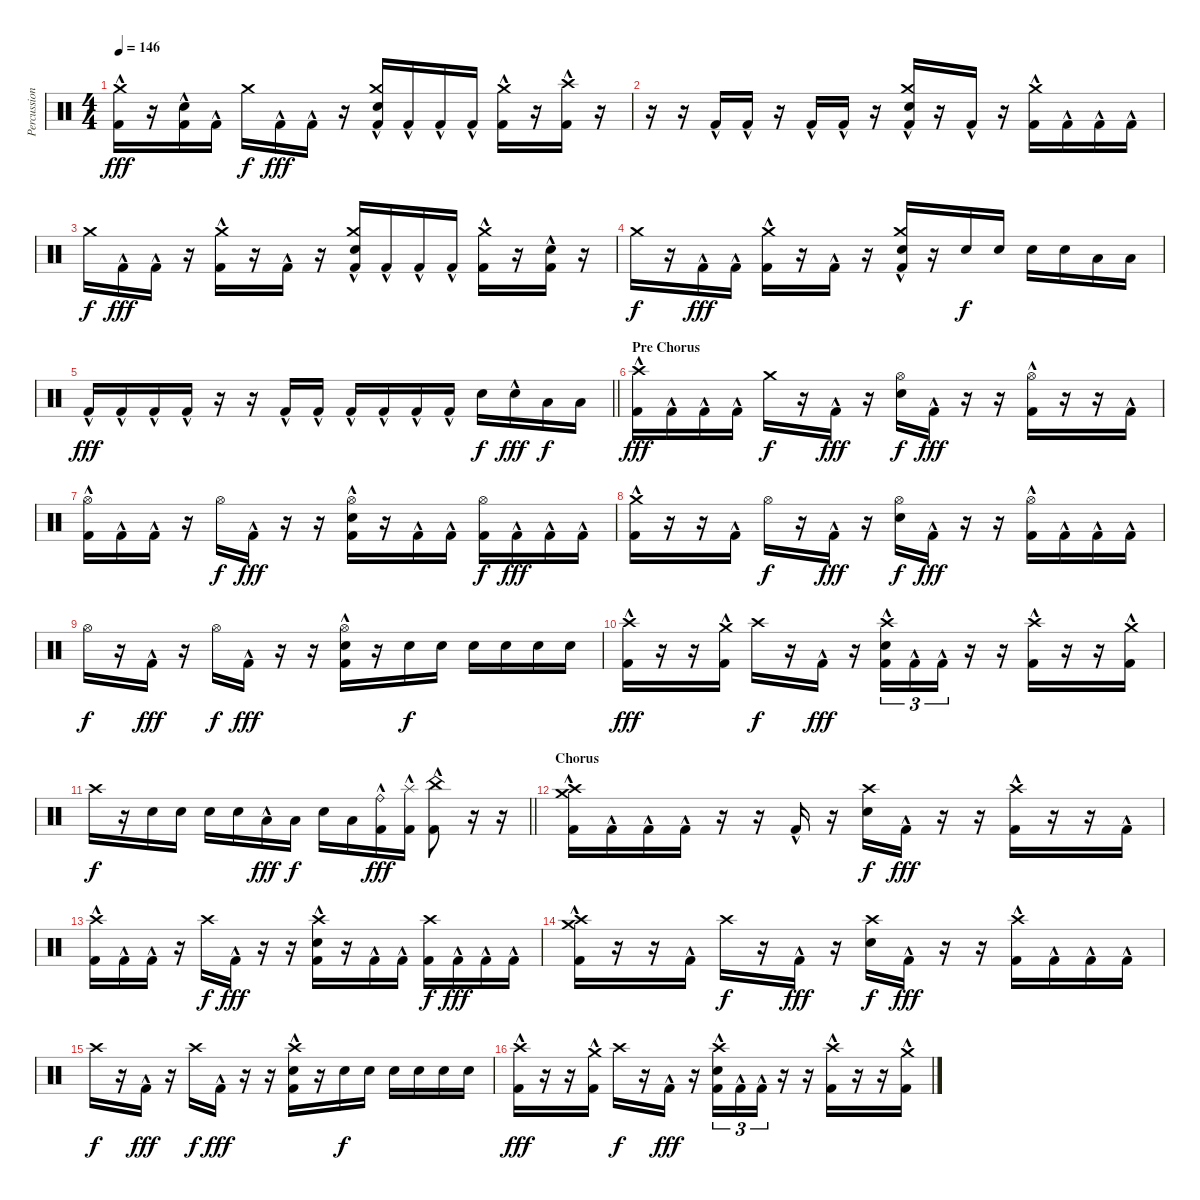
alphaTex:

\track ("Percussion" "Percussion") {instrument percussion}
\staff {score}
\articulation defaults
\ts (4 4)
\tempo 146
\clef neutral
\ks aminor
("Kick (hit) 2"{hac} "Crash medium (hit)").16{dy fff} r.16 ("Kick (hit) 2"{hac} "Electric Snare (hit)").16 "Kick (hit) 2"{hac}.16 "Crash medium (hit)".16{dy f} "Kick (hit) 2"{hac}.16{dy fff} "Kick (hit) 2"{hac}.16 r.16 ("Kick (hit) 2"{hac} "Electric Snare (hit)" "Crash medium (hit)").16 "Kick (hit) 2"{hac}.16 "Kick (hit) 2"{hac}.16 "Kick (hit) 2"{hac}.16 ("Kick (hit) 2"{hac} "Crash medium (hit)").16 r.16 ("Kick (hit) 2"{hac} "Crash high (hit)").16 r.16 |
r.16 r.16 "Kick (hit) 2"{hac}.16 "Kick (hit) 2"{hac}.16 r.16 "Kick (hit) 2"{hac}.16 "Kick (hit) 2"{hac}.16 r.16 ("Kick (hit) 2"{hac} "Electric Snare (hit)" "Crash medium (hit)").16 r.16 "Kick (hit) 2"{hac}.16 r.16 ("Kick (hit) 2"{hac} "Crash medium (hit)").16 "Kick (hit) 2"{hac}.16 "Kick (hit) 2"{hac}.16 "Kick (hit) 2"{hac}.16 |
"Crash medium (hit)".16{dy f} "Kick (hit) 2"{hac}.16{dy fff} "Kick (hit) 2"{hac}.16 r.16 ("Kick (hit) 2"{hac} "Crash medium (hit)").16 r.16 "Kick (hit) 2"{hac}.16 r.16 ("Kick (hit) 2"{hac} "Electric Snare (hit)" "Crash medium (hit)").16 "Kick (hit) 2"{hac}.16 "Kick (hit) 2"{hac}.16 "Kick (hit) 2"{hac}.16 ("Kick (hit) 2"{hac} "Crash medium (hit)").16 r.16 ("Kick (hit) 2"{hac} "Electric Snare (hit)").16 r.16 |
"Crash medium (hit)".16{dy f} r.16 "Kick (hit) 2"{hac}.16{dy fff} "Kick (hit) 2"{hac}.16 ("Kick (hit) 2"{hac} "Crash medium (hit)").16 r.16 "Kick (hit) 2"{hac}.16 r.16 ("Kick (hit) 2"{hac} "Electric Snare (hit)" "Crash medium (hit)").16 r.16 "Electric Snare (hit)".16{dy f} "Electric Snare (hit)".16 "Electric Snare (hit)".16 "Electric Snare (hit)".16 "Low Floor Tom (hit)".16 "Low Floor Tom (hit)".16 |
\barLineRight lightlight "Kick (hit) 2"{hac}.16{dy fff volume 13} "Kick (hit) 2"{hac}.16 "Kick (hit) 2"{hac}.16 "Kick (hit) 2"{hac}.16
r.16 r.16 "Kick (hit) 2"{hac}.16 "Kick (hit) 2"{hac}.16 "Kick (hit) 2"{hac}.16 "Kick (hit) 2"{hac}.16 "Kick (hit) 2"{hac}.16 "Kick (hit) 2"{hac}.16 "Electric Snare (hit)".16{dy f} "Electric Snare (hit)"{hac}.16{dy fff} "Low Floor Tom (hit)".16{dy f} "Low Floor Tom (hit)".16 |
\section ("" "Pre Chorus")
("Crash high (hit)" "Kick (hit) 2"{hac}).16{dy fff} "Kick (hit) 2"{hac}.16 "Kick (hit) 2"{hac}.16 "Kick (hit) 2"{hac}.16 "Crash medium (hit)".16{dy f} r.16 "Kick (hit) 2"{hac}.16{dy fff} r.16 ("Electric Snare (hit)" "Hi-Hat (open)").16{dy f} "Kick (hit) 2"{hac}.16{dy fff} r.16 r.16 ("Hi-Hat (open)" "Kick (hit) 2"{hac}).16 r.16 r.16 "Kick (hit) 2"{hac}.16 |
("Hi-Hat (open)" "Kick (hit) 2"{hac}).16 "Kick (hit) 2"{hac}.16 "Kick (hit) 2"{hac}.16 r.16 "Hi-Hat (open)".16{dy f} "Kick (hit) 2"{hac}.16{dy fff} r.16 r.16 ("Electric Snare (hit)" "Hi-Hat (open)" "Kick (hit) 2"{hac}).16 r.16 "Kick (hit) 2"{hac}.16 "Kick (hit) 2"{hac}.16 ("Hi-Hat (open)" "Kick (hit) 2").16{dy f} "Kick (hit) 2"{hac}.16{dy fff} "Kick (hit) 2"{hac}.16 "Kick (hit) 2"{hac}.16 |
("Crash medium (hit)" "Kick (hit) 2"{hac}).16 r.16 r.16 "Kick (hit) 2"{hac}.16 "Hi-Hat (open)".16{dy f} r.16 "Kick (hit) 2"{hac}.16{dy fff} r.16 ("Electric Snare (hit)" "Hi-Hat (open)").16{dy f} "Kick (hit) 2"{hac}.16{dy fff} r.16 r.16 ("Hi-Hat (open)" "Kick (hit) 2"{hac}).16 "Kick (hit) 2"{hac}.16 "Kick (hit) 2"{hac}.16 "Kick (hit) 2"{hac}.16 |
"Hi-Hat (open)".16{dy f} r.16 "Kick (hit) 2"{hac}.16{dy fff} r.16 "Hi-Hat (open)".16{dy f} "Kick (hit) 2"{hac}.16{dy fff} r.16 r.16 ("Electric Snare (hit)" "Hi-Hat (open)" "Kick (hit) 2"{hac}).16 r.16 "Electric Snare (hit)".16{dy f} "Electric Snare (hit)".16 "Electric Snare (hit)".16 "Electric Snare (hit)".16 "Electric Snare (hit)".16 "Electric Snare (hit)".16 |
("Crash high (hit)" "Kick (hit) 2"{hac}).16{dy fff} r.16 r.16 ("Crash medium (hit)" "Kick (hit) 2"{hac}).16 "Crash high (hit)".16{dy f} r.16 "Kick (hit) 2"{hac}.16{dy fff} r.16 ("Crash high (hit)" "Electric Snare (hit)" "Kick (hit) 2"{hac}).16{tu (3 2)} "Kick (hit) 2"{hac}.16{tu (3 2)} "Kick (hit) 2"{hac}.16{tu (3 2)} r.16 r.16 ("Crash high (hit)" "Kick (hit) 2"{hac}).16 r.16 r.16 ("Crash medium (hit)" "Kick (hit) 2"{hac}).16 |
\barLineRight lightlight "Crash high (hit)".16{dy f}
r.16 "Electric Snare (hit)".16 "Electric Snare (hit)".16 "Electric Snare (hit)".16 "Electric Snare (hit)".16 "Low Floor Tom (hit)"{hac}.16{dy fff} "Low Tom (hit)".16{dy f} "Electric Snare (hit)".16 "Low Tom (hit)".16 ("Kick (hit) 2"{hac} "Ride (bell)").16{dy fff} ("Kick (hit) 2"{hac} "Splash (hit)"{hac}).16 ("Kick (hit) 2"{hac} "China (hit)").8 r.16 r.16 |
\section ("" "Chorus")
("Crash high (hit)" "Crash medium (hit)" "Kick (hit) 2"{hac}).16 "Kick (hit) 2"{hac}.16 "Kick (hit) 2"{hac}.16 "Kick (hit) 2"{hac}.16 r.16 r.16 "Kick (hit) 2"{hac}.16 r.16 ("Electric Snare (hit)" "Crash high (hit)").16{dy f} "Kick (hit) 2"{hac}.16{dy fff} r.16 r.16 ("Crash high (hit)" "Kick (hit) 2"{hac}).16 r.16 r.16 "Kick (hit) 2"{hac}.16 |
("Crash high (hit)" "Kick (hit) 2"{hac}).16 "Kick (hit) 2"{hac}.16 "Kick (hit) 2"{hac}.16 r.16 "Crash high (hit)".16{dy f} "Kick (hit) 2"{hac}.16{dy fff} r.16 r.16 ("Electric Snare (hit)" "Crash high (hit)" "Kick (hit) 2"{hac}).16 r.16 "Kick (hit) 2"{hac}.16 "Kick (hit) 2"{hac}.16 ("Crash high (hit)" "Kick (hit) 2").16{dy f} "Kick (hit) 2"{hac}.16{dy fff} "Kick (hit) 2"{hac}.16 "Kick (hit) 2"{hac}.16 |
("Crash high (hit)" "Crash medium (hit)" "Kick (hit) 2"{hac}).16 r.16 r.16 "Kick (hit) 2"{hac}.16 "Crash high (hit)".16{dy f} r.16 "Kick (hit) 2"{hac}.16{dy fff} r.16 ("Electric Snare (hit)" "Crash high (hit)").16{dy f} "Kick (hit) 2"{hac}.16{dy fff} r.16 r.16 ("Crash high (hit)" "Kick (hit) 2"{hac}).16 "Kick (hit) 2"{hac}.16 "Kick (hit) 2"{hac}.16 "Kick (hit) 2"{hac}.16 |
"Crash high (hit)".16{dy f} r.16 "Kick (hit) 2"{hac}.16{dy fff} r.16 "Crash high (hit)".16{dy f} "Kick (hit) 2"{hac}.16{dy fff} r.16 r.16 ("Electric Snare (hit)" "Crash high (hit)" "Kick (hit) 2"{hac}).16 r.16 "Electric Snare (hit)".16{dy f} "Electric Snare (hit)".16 "Electric Snare (hit)".16 "Electric Snare (hit)".16 "Electric Snare (hit)".16 "Electric Snare (hit)".16 |
("Crash high (hit)" "Kick (hit) 2"{hac}).16{dy fff} r.16 r.16 ("Crash medium (hit)" "Kick (hit) 2"{hac}).16 "Crash high (hit)".16{dy f} r.16 "Kick (hit) 2"{hac}.16{dy fff} r.16 ("Crash high (hit)" "Electric Snare (hit)" "Kick (hit) 2"{hac}).16{tu (3 2)} "Kick (hit) 2"{hac}.16{tu (3 2)} "Kick (hit) 2"{hac}.16{tu (3 2)} r.16 r.16 ("Crash high (hit)" "Kick (hit) 2"{hac}).16 r.16 r.16 ("Crash medium (hit)" "Kick (hit) 2"{hac}).16
